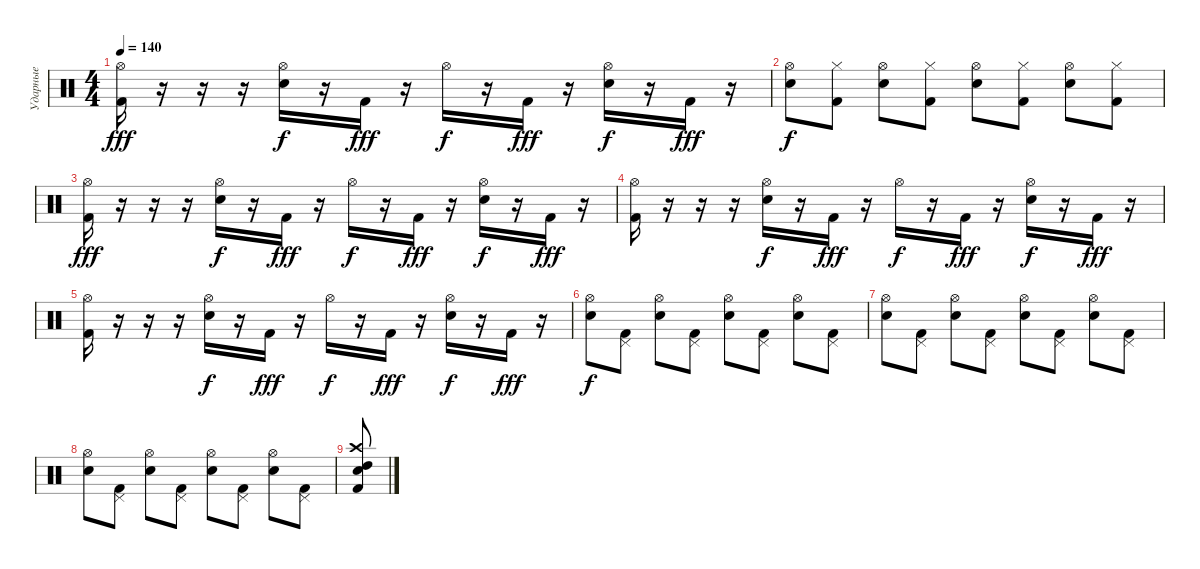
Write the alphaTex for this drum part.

\track ("Ударные" "Ударные") {instrument percussion}
\staff {score}
\articulation defaults
\ts (4 4)
\tempo 140
\clef neutral
\ks c
("Kick (hit) 2" "Hi-Hat (open)").16{dy fff} r.16 r.16 r.16 ("Snare (hit) 2" "Hi-Hat (open)").16{dy f} r.16 "Kick (hit) 2".16{dy fff} r.16 "Hi-Hat (open)".16{dy f} r.16 "Kick (hit) 2".16{dy fff} r.16 ("Snare (hit) 2" "Hi-Hat (open)").16{dy f} r.16 "Kick (hit) 2".16{dy fff} r.16 |
("Snare (hit) 2" "Hi-Hat (open)").8{dy f} ("Kick (hit) 2" "Hi-Hat (closed)").8 ("Snare (hit) 2" "Hi-Hat (open)").8 ("Kick (hit) 2" "Hi-Hat (closed)").8 ("Snare (hit) 2" "Hi-Hat (open)").8 ("Kick (hit) 2" "Hi-Hat (closed)").8 ("Snare (hit) 2" "Hi-Hat (open)").8 ("Kick (hit) 2" "Hi-Hat (closed)").8 |
("Kick (hit) 2" "Hi-Hat (open)").16{dy fff} r.16 r.16 r.16 ("Snare (hit) 2" "Hi-Hat (open)").16{dy f} r.16 "Kick (hit) 2".16{dy fff} r.16 "Hi-Hat (open)".16{dy f} r.16 "Kick (hit) 2".16{dy fff} r.16 ("Snare (hit) 2" "Hi-Hat (open)").16{dy f} r.16 "Kick (hit) 2".16{dy fff} r.16 |
("Kick (hit) 2" "Hi-Hat (open)").16 r.16 r.16 r.16 ("Snare (hit) 2" "Hi-Hat (open)").16{dy f} r.16 "Kick (hit) 2".16{dy fff} r.16 "Hi-Hat (open)".16{dy f} r.16 "Kick (hit) 2".16{dy fff} r.16 ("Snare (hit) 2" "Hi-Hat (open)").16{dy f} r.16 "Kick (hit) 2".16{dy fff} r.16 |
("Kick (hit) 2" "Hi-Hat (open)").16 r.16 r.16 r.16 ("Snare (hit) 2" "Hi-Hat (open)").16{dy f} r.16 "Kick (hit) 2".16{dy fff} r.16 "Hi-Hat (open)".16{dy f} r.16 "Kick (hit) 2".16{dy fff} r.16 ("Snare (hit) 2" "Hi-Hat (open)").16{dy f} r.16 "Kick (hit) 2".16{dy fff} r.16 |
("Snare (hit) 2" "Hi-Hat (open)").8{dy f} ("Kick (hit) 2" "Pedal Hi-Hat (hit)").8 ("Snare (hit) 2" "Hi-Hat (open)").8 ("Kick (hit) 2" "Pedal Hi-Hat (hit)").8 ("Snare (hit) 2" "Hi-Hat (open)").8 ("Kick (hit) 2" "Pedal Hi-Hat (hit)").8 ("Snare (hit) 2" "Hi-Hat (open)").8 ("Kick (hit) 2" "Pedal Hi-Hat (hit)").8 |
("Snare (hit) 2" "Hi-Hat (open)").8 ("Kick (hit) 2" "Pedal Hi-Hat (hit)").8 ("Snare (hit) 2" "Hi-Hat (open)").8 ("Kick (hit) 2" "Pedal Hi-Hat (hit)").8 ("Snare (hit) 2" "Hi-Hat (open)").8 ("Kick (hit) 2" "Pedal Hi-Hat (hit)").8 ("Snare (hit) 2" "Hi-Hat (open)").8 ("Kick (hit) 2" "Pedal Hi-Hat (hit)").8 |
("Snare (hit) 2" "Hi-Hat (open)").8 ("Kick (hit) 2" "Pedal Hi-Hat (hit)").8 ("Snare (hit) 2" "Hi-Hat (open)").8 ("Kick (hit) 2" "Pedal Hi-Hat (hit)").8 ("Snare (hit) 2" "Hi-Hat (open)").8 ("Kick (hit) 2" "Pedal Hi-Hat (hit)").8 ("Snare (hit) 2" "Hi-Hat (open)").8 ("Kick (hit) 2" "Pedal Hi-Hat (hit)").8 |
("Crash high (hit)" "High Tom (hit)" "Electric Snare (hit)" "Kick (hit) 2").8
